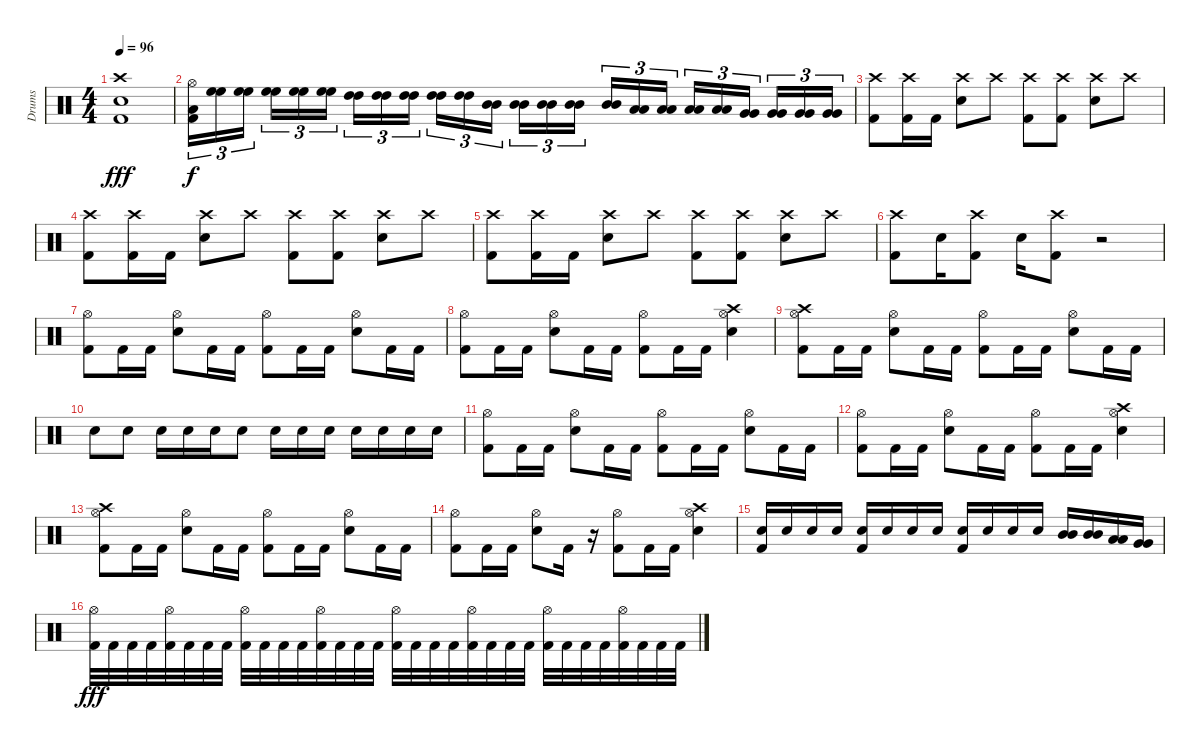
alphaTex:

\track ("Drums" "Drums") {instrument percussion}
\staff {score}
\articulation defaults
\ts (4 4)
\tempo 96
\clef neutral
\ks c
("Crash high (hit)" "Snare (hit) 2" "Kick (hit) 2").1{dy fff} |
("Kick (hit) 2" "Low Floor Tom (hit)" "Hi-Hat (open)").16{tu (3 2) dy f} ("High Floor Tom (hit)" "High Floor Tom (hit)").16{tu (3 2)} ("High Floor Tom (hit)" "High Floor Tom (hit)").16{tu (3 2) beam splitsecondary} ("High Floor Tom (hit)" "High Floor Tom (hit)").16{tu (3 2)} ("High Floor Tom (hit)" "High Floor Tom (hit)").16{tu (3 2)} ("High Floor Tom (hit)" "High Floor Tom (hit)").16{tu (3 2)} ("High Tom (hit)" "High Tom (hit)").16{tu (3 2)} ("High Tom (hit)" "High Tom (hit)").16{tu (3 2)} ("High Tom (hit)" "High Tom (hit)").16{tu (3 2) beam splitsecondary} ("High Tom (hit)" "High Tom (hit)").16{tu (3 2)} ("High Tom (hit)" "High Tom (hit)").16{tu (3 2)} ("Mid Tom (hit)" "Mid Tom (hit)").16{tu (3 2)} ("Mid Tom (hit)" "Mid Tom (hit)").16{tu (3 2)} ("Mid Tom (hit)" "Mid Tom (hit)").16{tu (3 2)} ("Mid Tom (hit)" "Mid Tom (hit)").16{tu (3 2) beam splitsecondary} ("Mid Tom (hit)" "Mid Tom (hit)").16{tu (3 2)} ("Low Tom (hit)" "Low Tom (hit)").16{tu (3 2)} ("Low Tom (hit)" "Low Tom (hit)").16{tu (3 2)} ("Low Tom (hit)" "Low Tom (hit)").16{tu (3 2)} ("Low Tom (hit)" "Low Tom (hit)").16{tu (3 2)} ("Very Low Tom (hit)" "Very Low Tom (hit)").16{tu (3 2) beam splitsecondary} ("Very Low Tom (hit)" "Very Low Tom (hit)").16{tu (3 2)} ("Very Low Tom (hit)" "Very Low Tom (hit)").16{tu (3 2)} ("Very Low Tom (hit)" "Very Low Tom (hit)").16{tu (3 2)} |
("Crash high (hit)" "Kick (hit) 2").8 ("Crash high (hit)" "Kick (hit) 2").16 "Kick (hit) 2".16 ("Crash high (hit)" "Snare (hit) 2").8 "Crash high (hit)".8 ("Crash high (hit)" "Kick (hit) 2").8 ("Crash high (hit)" "Kick (hit) 2").8 ("Crash high (hit)" "Snare (hit) 2").8 "Crash high (hit)".8 |
("Crash high (hit)" "Kick (hit) 2").8 ("Crash high (hit)" "Kick (hit) 2").16 "Kick (hit) 2".16 ("Crash high (hit)" "Snare (hit) 2").8 "Crash high (hit)".8 ("Crash high (hit)" "Kick (hit) 2").8 ("Crash high (hit)" "Kick (hit) 2").8 ("Crash high (hit)" "Snare (hit) 2").8 "Crash high (hit)".8 |
("Crash high (hit)" "Kick (hit) 2").8 ("Crash high (hit)" "Kick (hit) 2").16 "Kick (hit) 2".16 ("Crash high (hit)" "Snare (hit) 2").8 "Crash high (hit)".8 ("Crash high (hit)" "Kick (hit) 2").8 ("Crash high (hit)" "Kick (hit) 2").8 ("Crash high (hit)" "Snare (hit) 2").8 "Crash high (hit)".8 |
("Crash high (hit)" "Kick (hit) 2").8 "Snare (hit) 2".16 ("Crash high (hit)" "Kick (hit) 2").8 "Snare (hit) 2".16 ("Crash high (hit)" "Kick (hit) 2").8 r.2 |
("Hi-Hat (open)" "Kick (hit) 2").8 "Kick (hit) 2".16 "Kick (hit) 2".16 ("Hi-Hat (open)" "Snare (hit) 2").8 "Kick (hit) 2".16 "Kick (hit) 2".16 ("Hi-Hat (open)" "Kick (hit) 2").8 "Kick (hit) 2".16 "Kick (hit) 2".16 ("Hi-Hat (open)" "Snare (hit) 2").8 "Kick (hit) 2".16 "Kick (hit) 2".16 |
("Hi-Hat (open)" "Kick (hit) 2").8 "Kick (hit) 2".16 "Kick (hit) 2".16 ("Hi-Hat (open)" "Snare (hit) 2").8 "Kick (hit) 2".16 "Kick (hit) 2".16 ("Hi-Hat (open)" "Kick (hit) 2").8 "Kick (hit) 2".16 "Kick (hit) 2".16 ("Crash high (hit)" "Hi-Hat (open)" "Snare (hit) 2").4 |
("Crash high (hit)" "Hi-Hat (open)" "Kick (hit) 2").8 "Kick (hit) 2".16 "Kick (hit) 2".16 ("Hi-Hat (open)" "Snare (hit) 2").8 "Kick (hit) 2".16 "Kick (hit) 2".16 ("Hi-Hat (open)" "Kick (hit) 2").8 "Kick (hit) 2".16 "Kick (hit) 2".16 ("Hi-Hat (open)" "Snare (hit) 2").8 "Kick (hit) 2".16 "Kick (hit) 2".16 |
"Snare (hit) 2".8 "Snare (hit) 2".8 "Snare (hit) 2".16 "Snare (hit) 2".16 "Snare (hit) 2".16 "Snare (hit) 2".8 "Snare (hit) 2".16 "Snare (hit) 2".16 "Snare (hit) 2".16 "Snare (hit) 2".16 "Snare (hit) 2".16 "Snare (hit) 2".16 "Snare (hit) 2".16 |
("Hi-Hat (open)" "Kick (hit) 2").8 "Kick (hit) 2".16 "Kick (hit) 2".16 ("Hi-Hat (open)" "Snare (hit) 2").8 "Kick (hit) 2".16 "Kick (hit) 2".16 ("Hi-Hat (open)" "Kick (hit) 2").8 "Kick (hit) 2".16 "Kick (hit) 2".16 ("Hi-Hat (open)" "Snare (hit) 2").8 "Kick (hit) 2".16 "Kick (hit) 2".16 |
("Hi-Hat (open)" "Kick (hit) 2").8 "Kick (hit) 2".16 "Kick (hit) 2".16 ("Hi-Hat (open)" "Snare (hit) 2").8 "Kick (hit) 2".16 "Kick (hit) 2".16 ("Hi-Hat (open)" "Kick (hit) 2").8 "Kick (hit) 2".16 "Kick (hit) 2".16 ("Crash high (hit)" "Hi-Hat (open)" "Snare (hit) 2").4 |
("Crash high (hit)" "Hi-Hat (open)" "Kick (hit) 2").8 "Kick (hit) 2".16 "Kick (hit) 2".16 ("Hi-Hat (open)" "Snare (hit) 2").8 "Kick (hit) 2".16 "Kick (hit) 2".16 ("Hi-Hat (open)" "Kick (hit) 2").8 "Kick (hit) 2".16 "Kick (hit) 2".16 ("Hi-Hat (open)" "Snare (hit) 2").8 "Kick (hit) 2".16 "Kick (hit) 2".16 |
("Hi-Hat (open)" "Kick (hit) 2").8 "Kick (hit) 2".16 "Kick (hit) 2".16 ("Hi-Hat (open)" "Snare (hit) 2").8 "Kick (hit) 2".16 r.16 ("Hi-Hat (open)" "Kick (hit) 2").8 "Kick (hit) 2".16 "Kick (hit) 2".16 ("Crash high (hit)" "Hi-Hat (open)" "Snare (hit) 2").4 |
("Kick (hit) 2" "Snare (hit) 2").16 "Snare (hit) 2".16 "Snare (hit) 2".16 "Snare (hit) 2".16 ("Kick (hit) 2" "Snare (hit) 2").16 "Snare (hit) 2".16 "Snare (hit) 2".16 "Snare (hit) 2".16 ("Kick (hit) 2" "Snare (hit) 2").16 "Snare (hit) 2".16 "Snare (hit) 2".16 "Snare (hit) 2".16 ("Mid Tom (hit)" "Mid Tom (hit)").16 ("Mid Tom (hit)" "Mid Tom (hit)").16 ("Low Tom (hit)" "Low Tom (hit)").16 ("Very Low Tom (hit)" "Very Low Tom (hit)").16 |
("Hi-Hat (open)" "Kick (hit) 2").32{dy fff} "Kick (hit) 2".32 "Kick (hit) 2".32 "Kick (hit) 2".32 ("Hi-Hat (open)" "Kick (hit) 2").32 "Kick (hit) 2".32 "Kick (hit) 2".32 "Kick (hit) 2".32 ("Hi-Hat (open)" "Kick (hit) 2").32 "Kick (hit) 2".32 "Kick (hit) 2".32 "Kick (hit) 2".32 ("Hi-Hat (open)" "Kick (hit) 2").32 "Kick (hit) 2".32 "Kick (hit) 2".32 "Kick (hit) 2".32 ("Hi-Hat (open)" "Kick (hit) 2").32 "Kick (hit) 2".32 "Kick (hit) 2".32 "Kick (hit) 2".32 ("Hi-Hat (open)" "Kick (hit) 2").32 "Kick (hit) 2".32 "Kick (hit) 2".32 "Kick (hit) 2".32 ("Hi-Hat (open)" "Kick (hit) 2").32 "Kick (hit) 2".32 "Kick (hit) 2".32 "Kick (hit) 2".32 ("Hi-Hat (open)" "Kick (hit) 2").32 "Kick (hit) 2".32 "Kick (hit) 2".32 "Kick (hit) 2".32
